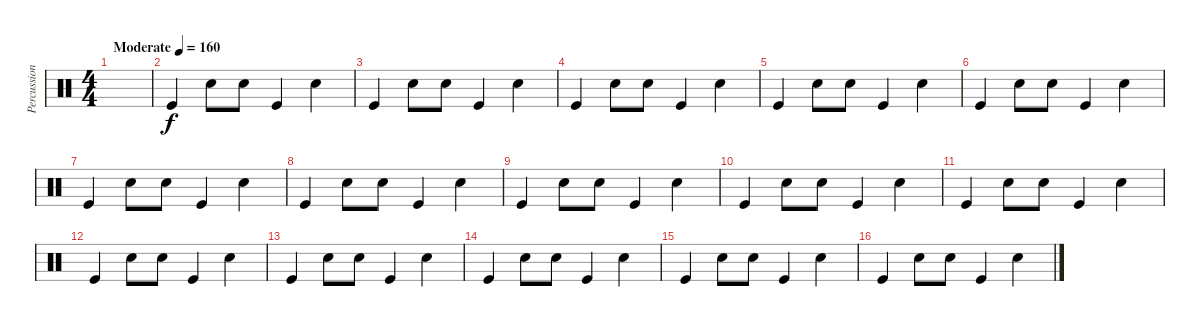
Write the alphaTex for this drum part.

\track ("Percussions" "Percussion") {instrument percussion}
\staff {score}
\articulation defaults
\ts (4 4)
\tempo (160 "Moderate")
\clef neutral
\ks c
|
"Kick (hit)".4 "Snare (hit) 2".8 "Snare (hit) 2".8 "Kick (hit)".4 "Snare (hit) 2".4 |
"Kick (hit)".4 "Snare (hit) 2".8 "Snare (hit) 2".8 "Kick (hit)".4 "Snare (hit) 2".4 |
"Kick (hit)".4 "Snare (hit) 2".8 "Snare (hit) 2".8 "Kick (hit)".4 "Snare (hit) 2".4 |
"Kick (hit)".4 "Snare (hit) 2".8 "Snare (hit) 2".8 "Kick (hit)".4 "Snare (hit) 2".4 |
"Kick (hit)".4 "Snare (hit) 2".8 "Snare (hit) 2".8 "Kick (hit)".4 "Snare (hit) 2".4 |
"Kick (hit)".4 "Snare (hit) 2".8 "Snare (hit) 2".8 "Kick (hit)".4 "Snare (hit) 2".4 |
"Kick (hit)".4 "Snare (hit) 2".8 "Snare (hit) 2".8 "Kick (hit)".4 "Snare (hit) 2".4 |
"Kick (hit)".4 "Snare (hit) 2".8 "Snare (hit) 2".8 "Kick (hit)".4 "Snare (hit) 2".4 |
"Kick (hit)".4 "Snare (hit) 2".8 "Snare (hit) 2".8 "Kick (hit)".4 "Snare (hit) 2".4 |
"Kick (hit)".4 "Snare (hit) 2".8 "Snare (hit) 2".8 "Kick (hit)".4 "Snare (hit) 2".4 |
"Kick (hit)".4 "Snare (hit) 2".8 "Snare (hit) 2".8 "Kick (hit)".4 "Snare (hit) 2".4 |
"Kick (hit)".4 "Snare (hit) 2".8 "Snare (hit) 2".8 "Kick (hit)".4 "Snare (hit) 2".4 |
"Kick (hit)".4 "Snare (hit) 2".8 "Snare (hit) 2".8 "Kick (hit)".4 "Snare (hit) 2".4 |
"Kick (hit)".4 "Snare (hit) 2".8 "Snare (hit) 2".8 "Kick (hit)".4 "Snare (hit) 2".4 |
"Kick (hit)".4 "Snare (hit) 2".8 "Snare (hit) 2".8 "Kick (hit)".4 "Snare (hit) 2".4
